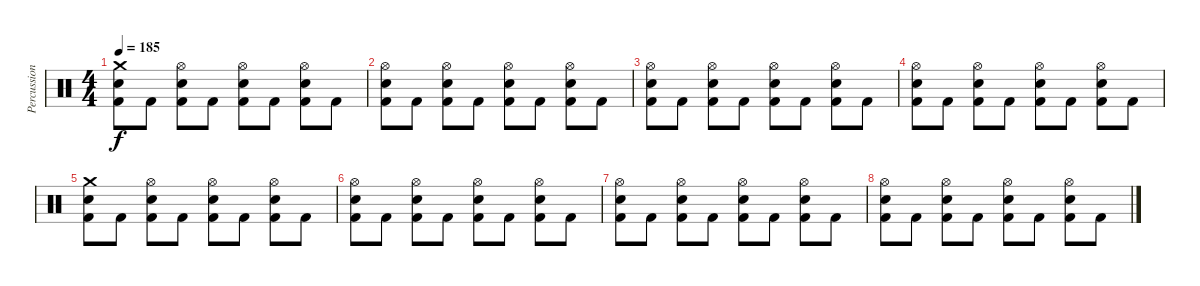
\track ("Percussions" "Percussion") {instrument percussion}
\staff {score}
\articulation defaults
\ts (4 4)
\tempo 185
\clef neutral
\ks c
("Crash medium (hit)" "Electric Snare (hit)" "Kick (hit) 2").8{dy f volume 9} "Kick (hit) 2".8 ("Hi-Hat (open)" "Electric Snare (hit)" "Kick (hit) 2").8 "Kick (hit) 2".8 ("Hi-Hat (open)" "Electric Snare (hit)" "Kick (hit) 2").8 "Kick (hit) 2".8 ("Hi-Hat (open)" "Electric Snare (hit)" "Kick (hit) 2").8 "Kick (hit) 2".8 |
("Hi-Hat (open)" "Electric Snare (hit)" "Kick (hit) 2").8 "Kick (hit) 2".8 ("Hi-Hat (open)" "Electric Snare (hit)" "Kick (hit) 2").8 "Kick (hit) 2".8 ("Hi-Hat (open)" "Electric Snare (hit)" "Kick (hit) 2").8 "Kick (hit) 2".8 ("Hi-Hat (open)" "Electric Snare (hit)" "Kick (hit) 2").8 "Kick (hit) 2".8 |
("Hi-Hat (open)" "Electric Snare (hit)" "Kick (hit) 2").8 "Kick (hit) 2".8 ("Hi-Hat (open)" "Electric Snare (hit)" "Kick (hit) 2").8 "Kick (hit) 2".8 ("Hi-Hat (open)" "Electric Snare (hit)" "Kick (hit) 2").8 "Kick (hit) 2".8 ("Hi-Hat (open)" "Electric Snare (hit)" "Kick (hit) 2").8 "Kick (hit) 2".8 |
("Hi-Hat (open)" "Electric Snare (hit)" "Kick (hit) 2").8 "Kick (hit) 2".8 ("Hi-Hat (open)" "Electric Snare (hit)" "Kick (hit) 2").8 "Kick (hit) 2".8 ("Hi-Hat (open)" "Electric Snare (hit)" "Kick (hit) 2").8 "Kick (hit) 2".8 ("Hi-Hat (open)" "Electric Snare (hit)" "Kick (hit) 2").8 "Kick (hit) 2".8 |
("Crash medium (hit)" "Electric Snare (hit)" "Kick (hit) 2").8{volume 0} "Kick (hit) 2".8 ("Hi-Hat (open)" "Electric Snare (hit)" "Kick (hit) 2").8 "Kick (hit) 2".8 ("Hi-Hat (open)" "Electric Snare (hit)" "Kick (hit) 2").8 "Kick (hit) 2".8 ("Hi-Hat (open)" "Electric Snare (hit)" "Kick (hit) 2").8 "Kick (hit) 2".8 |
("Hi-Hat (open)" "Electric Snare (hit)" "Kick (hit) 2").8 "Kick (hit) 2".8 ("Hi-Hat (open)" "Electric Snare (hit)" "Kick (hit) 2").8 "Kick (hit) 2".8 ("Hi-Hat (open)" "Electric Snare (hit)" "Kick (hit) 2").8 "Kick (hit) 2".8 ("Hi-Hat (open)" "Electric Snare (hit)" "Kick (hit) 2").8 "Kick (hit) 2".8 |
("Hi-Hat (open)" "Electric Snare (hit)" "Kick (hit) 2").8 "Kick (hit) 2".8 ("Hi-Hat (open)" "Electric Snare (hit)" "Kick (hit) 2").8 "Kick (hit) 2".8 ("Hi-Hat (open)" "Electric Snare (hit)" "Kick (hit) 2").8 "Kick (hit) 2".8 ("Hi-Hat (open)" "Electric Snare (hit)" "Kick (hit) 2").8 "Kick (hit) 2".8 |
("Hi-Hat (open)" "Electric Snare (hit)" "Kick (hit) 2").8 "Kick (hit) 2".8 ("Hi-Hat (open)" "Electric Snare (hit)" "Kick (hit) 2").8 "Kick (hit) 2".8 ("Hi-Hat (open)" "Electric Snare (hit)" "Kick (hit) 2").8 "Kick (hit) 2".8 ("Hi-Hat (open)" "Electric Snare (hit)" "Kick (hit) 2").8 "Kick (hit) 2".8
